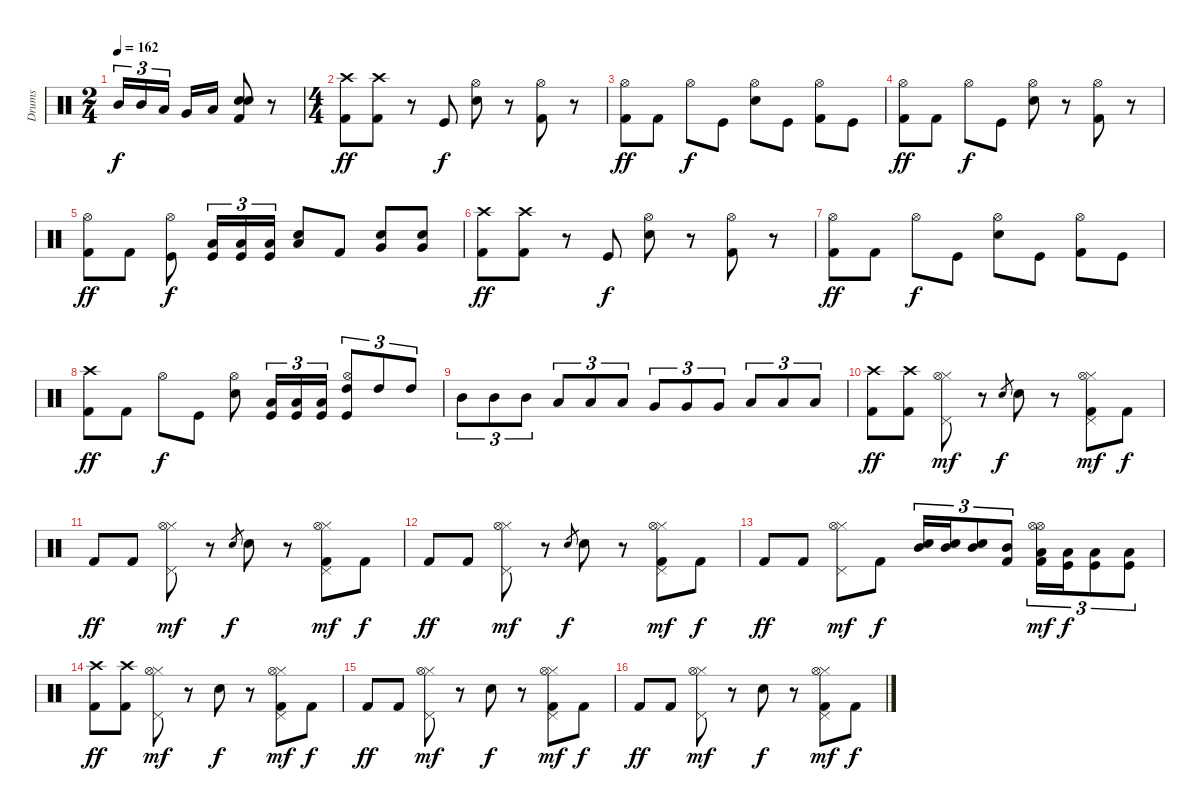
\track ("Drums" "Drums") {instrument percussion}
\staff {score}
\articulation defaults
\ts (2 4)
\tempo 162
\clef neutral
\ks c "Mid Tom (hit)".16{tu (3 2) dy f} "Mid Tom (hit)".16{tu (3 2)} "Low Tom (hit)".16{tu (3 2)} "Very Low Tom (hit)".16 "Low Floor Tom (hit)".16
("Electric Snare (hit)" "Snare (hit) 2" "Kick (hit) 2").8 r.8 |
\ts (4 4)
("Crash high (hit)" "Kick (hit) 2").8{dy ff} ("Crash high (hit)" "Kick (hit) 2").8 r.8 "Kick (hit)".8{dy f} ("Hi-Hat (open)" "Electric Snare (hit)").8 r.8 ("Hi-Hat (open)" "Kick (hit) 2").8 r.8 |
("Hi-Hat (open)" "Kick (hit) 2").8{dy ff} "Kick (hit) 2".8 "Hi-Hat (open)".8{dy f} "Kick (hit)".8 ("Hi-Hat (open)" "Electric Snare (hit)").8 "Kick (hit)".8 ("Hi-Hat (open)" "Kick (hit) 2").8 "Kick (hit)".8 |
("Hi-Hat (open)" "Kick (hit) 2").8{dy ff} "Kick (hit) 2".8 "Hi-Hat (open)".8{dy f} "Kick (hit)".8 ("Hi-Hat (open)" "Electric Snare (hit)").8 r.8 ("Hi-Hat (open)" "Kick (hit) 2").8 r.8 |
("Hi-Hat (open)" "Kick (hit) 2").8{dy ff} "Kick (hit) 2".8 ("Hi-Hat (open)" "Kick (hit)").8{dy f} ("Low Tom (hit)" "Kick (hit)").16{tu (3 2)} ("Low Tom (hit)" "Kick (hit)").16{tu (3 2)} ("Low Tom (hit)" "Kick (hit)").16{tu (3 2)} ("Low Tom (hit)" "Snare (hit) 2").8 "Kick (hit) 2".8 ("Very Low Tom (hit)" "Snare (hit) 2").8 ("Very Low Tom (hit)" "Snare (hit) 2").8 |
("Crash high (hit)" "Kick (hit) 2").8{dy ff} ("Crash high (hit)" "Kick (hit) 2").8 r.8 "Kick (hit)".8{dy f} ("Hi-Hat (open)" "Electric Snare (hit)").8 r.8 ("Hi-Hat (open)" "Kick (hit) 2").8 r.8 |
("Hi-Hat (open)" "Kick (hit) 2").8{dy ff} "Kick (hit) 2".8 "Hi-Hat (open)".8{dy f} "Kick (hit)".8 ("Hi-Hat (open)" "Electric Snare (hit)").8 "Kick (hit)".8 ("Hi-Hat (open)" "Kick (hit) 2").8 "Kick (hit)".8 |
("Crash high (hit)" "Kick (hit) 2").8{dy ff} "Kick (hit) 2".8 "Hi-Hat (open)".8{dy f} "Kick (hit)".8 ("Hi-Hat (open)" "Electric Snare (hit)").8 ("Low Floor Tom (hit)" "Kick (hit)").16{tu (3 2)} ("Low Floor Tom (hit)" "Kick (hit)").16{tu (3 2)} ("Low Floor Tom (hit)" "Kick (hit)").16{tu (3 2)} ("Hi-Hat (open)" "High Tom (hit)" "Kick (hit)").8{tu (3 2)} "High Tom (hit)".8{tu (3 2)} "High Tom (hit)".8{tu (3 2)} |
"Mid Tom (hit)".8{tu (3 2)} "Mid Tom (hit)".8{tu (3 2)} "Mid Tom (hit)".8{tu (3 2)} "Low Tom (hit)".8{tu (3 2)} "Low Tom (hit)".8{tu (3 2)} "Low Tom (hit)".8{tu (3 2)} "Very Low Tom (hit)".8{tu (3 2)} "Very Low Tom (hit)".8{tu (3 2)} "Very Low Tom (hit)".8{tu (3 2)} "Low Floor Tom (hit)".8{tu (3 2)} "Low Floor Tom (hit)".8{tu (3 2)} "Low Floor Tom (hit)".8{tu (3 2)} |
("Crash high (hit)" "Kick (hit) 2").8{dy ff} ("Crash high (hit)" "Kick (hit) 2").8 ("Pedal Hi-Hat (hit)" "Hi-Hat (closed)" "Hi-Hat (open)").8{dy mf} r.8 "Electric Snare (hit)".8{gr dy f} "Electric Snare (hit)".8 r.8 ("Pedal Hi-Hat (hit)" "Hi-Hat (closed)" "Hi-Hat (open)" "Kick (hit) 2").8{dy mf} "Kick (hit) 2".8{dy f} |
"Kick (hit) 2".8{dy ff} "Kick (hit) 2".8 ("Pedal Hi-Hat (hit)" "Hi-Hat (closed)" "Hi-Hat (open)").8{dy mf} r.8 "Electric Snare (hit)".8{gr dy f} "Electric Snare (hit)".8 r.8 ("Pedal Hi-Hat (hit)" "Hi-Hat (closed)" "Hi-Hat (open)" "Kick (hit) 2").8{dy mf} "Kick (hit) 2".8{dy f} |
"Kick (hit) 2".8{dy ff} "Kick (hit) 2".8 ("Pedal Hi-Hat (hit)" "Hi-Hat (closed)" "Hi-Hat (open)").8{dy mf} r.8 "Electric Snare (hit)".8{gr dy f} "Electric Snare (hit)".8 r.8 ("Pedal Hi-Hat (hit)" "Hi-Hat (closed)" "Hi-Hat (open)" "Kick (hit) 2").8{dy mf} "Kick (hit) 2".8{dy f} |
"Kick (hit) 2".8{dy ff} "Kick (hit) 2".8 ("Pedal Hi-Hat (hit)" "Hi-Hat (closed)" "Hi-Hat (open)").8{dy mf} "Kick (hit) 2".8{dy f} ("Mid Tom (hit)" "Snare (hit) 2").16{tu (3 2)} ("Mid Tom (hit)" "Snare (hit) 2").16{tu (3 2)} ("Mid Tom (hit)" "Snare (hit) 2").8{tu (3 2)} ("Mid Tom (hit)" "Kick (hit) 2").8{tu (3 2)} ("Hi-Hat (open)" "Hi-Hat (open)" "Low Tom (hit)" "Kick (hit) 2").16{tu (3 2) dy mf} ("Low Tom (hit)" "Kick (hit)").16{tu (3 2) dy f} ("Low Tom (hit)" "Kick (hit)").8{tu (3 2)} ("Low Tom (hit)" "Kick (hit)").8{tu (3 2)} |
("Crash high (hit)" "Kick (hit) 2").8{dy ff} ("Crash high (hit)" "Kick (hit) 2").8 ("Pedal Hi-Hat (hit)" "Hi-Hat (closed)" "Hi-Hat (open)").8{dy mf} r.8 "Electric Snare (hit)".8{dy f} r.8 ("Pedal Hi-Hat (hit)" "Hi-Hat (closed)" "Hi-Hat (open)" "Kick (hit) 2").8{dy mf} "Kick (hit) 2".8{dy f} |
"Kick (hit) 2".8{dy ff} "Kick (hit) 2".8 ("Pedal Hi-Hat (hit)" "Hi-Hat (closed)" "Hi-Hat (open)").8{dy mf} r.8 "Electric Snare (hit)".8{dy f} r.8 ("Pedal Hi-Hat (hit)" "Hi-Hat (closed)" "Hi-Hat (open)" "Kick (hit) 2").8{dy mf} "Kick (hit) 2".8{dy f} |
"Kick (hit) 2".8{dy ff} "Kick (hit) 2".8 ("Pedal Hi-Hat (hit)" "Hi-Hat (closed)" "Hi-Hat (open)").8{dy mf} r.8 "Electric Snare (hit)".8{dy f} r.8 ("Pedal Hi-Hat (hit)" "Hi-Hat (closed)" "Hi-Hat (open)" "Kick (hit) 2").8{dy mf} "Kick (hit) 2".8{dy f}
